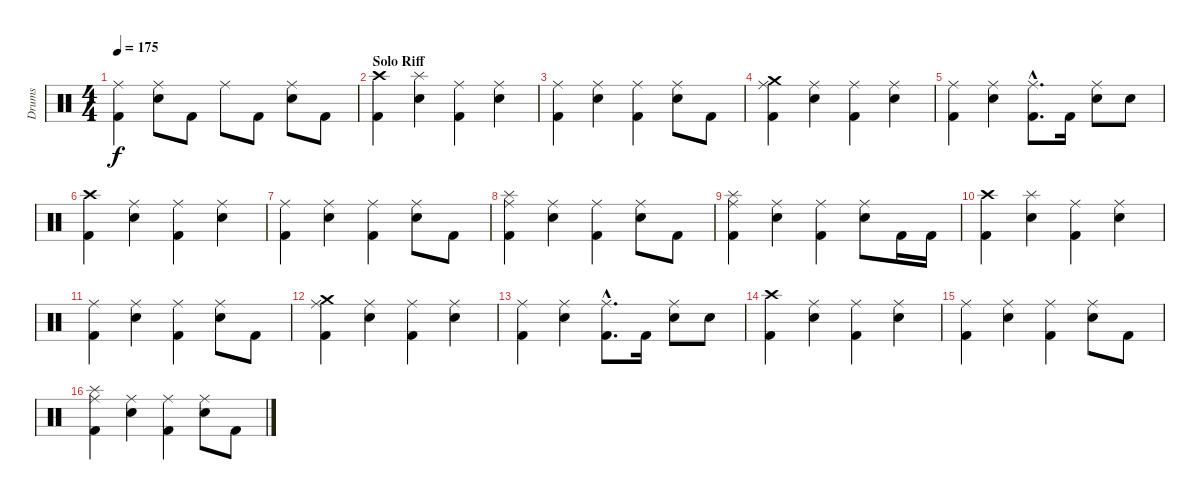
\track ("Drums" "Drums") {instrument percussion}
\staff {score}
\articulation defaults
\ts (4 4)
\tempo 175
\clef neutral
\ks c
("Ride (middle)" "Kick (hit) 2").4{dy f} ("Ride (middle)" "Snare (hit) 2").8 "Kick (hit) 2".8 "Ride (middle)".8 "Kick (hit) 2".8 ("Ride (middle)" "Snare (hit) 2").8 "Kick (hit) 2".8 |
\section ("" "Solo Riff")
("Crash high (hit)" "Kick (hit) 2").4 ("Splash (hit)" "Snare (hit) 2").4 ("Ride (middle)" "Kick (hit) 2").4 ("Ride (middle)" "Snare (hit) 2").4 |
("Ride (middle)" "Kick (hit) 2").4 ("Ride (middle)" "Snare (hit) 2").4 ("Ride (middle)" "Kick (hit) 2").4 ("Ride (middle)" "Snare (hit) 2").8 "Kick (hit) 2".8 |
("Crash medium (hit)" "Ride (middle)" "Kick (hit) 2").4 ("Ride (middle)" "Snare (hit) 2").4 ("Ride (middle)" "Kick (hit) 2").4 ("Ride (middle)" "Snare (hit) 2").4 |
("Ride (middle)" "Kick (hit) 2").4 ("Ride (middle)" "Snare (hit) 2").4 ("Ride (middle)"{hac} "Kick (hit) 2"{hac}).8{d} "Kick (hit) 2".16 ("Ride (middle)" "Snare (hit) 2").8 "Snare (hit) 2".8 |
("Crash high (hit)" "Kick (hit) 2").4 ("Ride (middle)" "Snare (hit) 2").4 ("Ride (middle)" "Kick (hit) 2").4 ("Ride (middle)" "Snare (hit) 2").4 |
("Ride (middle)" "Kick (hit) 2").4 ("Ride (middle)" "Snare (hit) 2").4 ("Ride (middle)" "Kick (hit) 2").4 ("Ride (middle)" "Snare (hit) 2").8 "Kick (hit) 2".8 |
("Splash (hit)" "Ride (middle)" "Kick (hit) 2").4 ("Ride (middle)" "Snare (hit) 2").4 ("Ride (middle)" "Kick (hit) 2").4 ("Ride (middle)" "Snare (hit) 2").8 "Kick (hit) 2".8 |
("Splash (hit)" "Ride (middle)" "Kick (hit) 2").4 ("Ride (middle)" "Snare (hit) 2").4 ("Ride (middle)" "Kick (hit) 2").4 ("Ride (middle)" "Snare (hit) 2").8 "Kick (hit) 2".16 "Kick (hit) 2".16 |
("Crash high (hit)" "Kick (hit) 2").4 ("Splash (hit)" "Snare (hit) 2").4 ("Ride (middle)" "Kick (hit) 2").4 ("Ride (middle)" "Snare (hit) 2").4 |
("Ride (middle)" "Kick (hit) 2").4 ("Ride (middle)" "Snare (hit) 2").4 ("Ride (middle)" "Kick (hit) 2").4 ("Ride (middle)" "Snare (hit) 2").8 "Kick (hit) 2".8 |
("Crash medium (hit)" "Ride (middle)" "Kick (hit) 2").4 ("Ride (middle)" "Snare (hit) 2").4 ("Ride (middle)" "Kick (hit) 2").4 ("Ride (middle)" "Snare (hit) 2").4 |
("Ride (middle)" "Kick (hit) 2").4 ("Ride (middle)" "Snare (hit) 2").4 ("Ride (middle)"{hac} "Kick (hit) 2"{hac}).8{d} "Kick (hit) 2".16 ("Ride (middle)" "Snare (hit) 2").8 "Snare (hit) 2".8 |
("Crash high (hit)" "Kick (hit) 2").4 ("Ride (middle)" "Snare (hit) 2").4 ("Ride (middle)" "Kick (hit) 2").4 ("Ride (middle)" "Snare (hit) 2").4 |
("Ride (middle)" "Kick (hit) 2").4 ("Ride (middle)" "Snare (hit) 2").4 ("Ride (middle)" "Kick (hit) 2").4 ("Ride (middle)" "Snare (hit) 2").8 "Kick (hit) 2".8 |
("Splash (hit)" "Ride (middle)" "Kick (hit) 2").4 ("Ride (middle)" "Snare (hit) 2").4 ("Ride (middle)" "Kick (hit) 2").4 ("Ride (middle)" "Snare (hit) 2").8 "Kick (hit) 2".8
